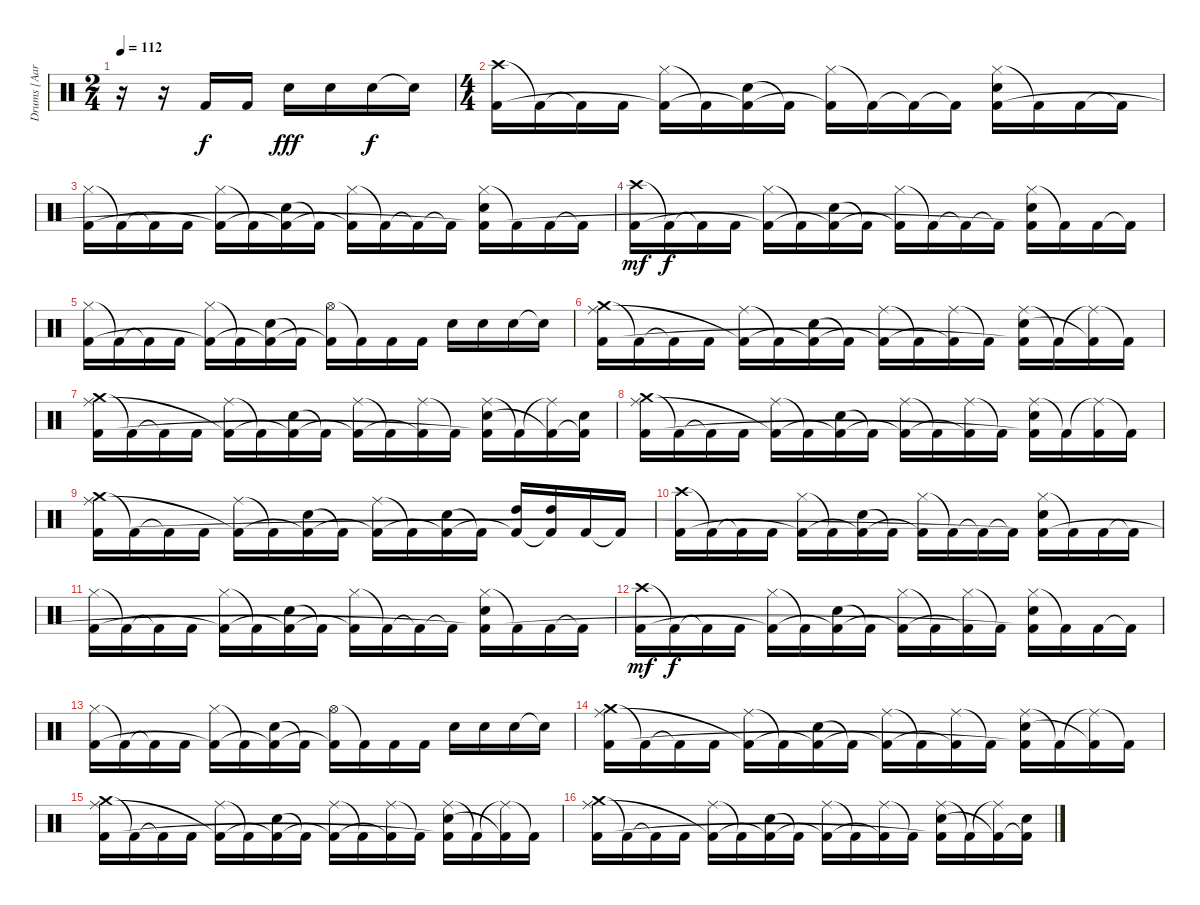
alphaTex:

\track ("Drums [Aaron Harris]" "Drums [Aar") {instrument percussion}
\staff {score}
\articulation defaults
\ts (2 4)
\tempo 112
\clef neutral
\ks c
r.16{dy f} r.16 "Kick (hit) 2".16 "Kick (hit) 2".16 "Electric Snare (hit)".16{dy fff} "Electric Snare (hit)".16 "Electric Snare (hit)".16{dy f} "Electric Snare (hit)"{t}.16 |
\ts (4 4)
("Crash high (hit)" "Kick (hit) 2").16 "Kick (hit) 2"{t}.16 "Kick (hit) 2"{t}.16 "Kick (hit) 2".16 ("Hi-Hat (closed)" "Kick (hit) 2"{t}).16 "Kick (hit) 2"{t}.16 ("Electric Snare (hit)" "Kick (hit) 2"{t}).16 "Kick (hit) 2"{t}.16 ("Hi-Hat (closed)" "Kick (hit) 2"{t}).16 "Kick (hit) 2"{t}.16 "Kick (hit) 2"{t}.16 "Kick (hit) 2"{t}.16 ("Hi-Hat (closed)" "Electric Snare (hit)" "Kick (hit) 2").16 "Kick (hit) 2"{t}.16 "Kick (hit) 2".16 "Kick (hit) 2"{t}.16 |
("Hi-Hat (closed)" "Kick (hit) 2").16 "Kick (hit) 2"{t}.16 "Kick (hit) 2"{t}.16 "Kick (hit) 2".16 ("Hi-Hat (closed)" "Kick (hit) 2"{t}).16 "Kick (hit) 2"{t}.16 ("Electric Snare (hit)" "Kick (hit) 2"{t}).16 "Kick (hit) 2"{t}.16 ("Hi-Hat (closed)" "Kick (hit) 2"{t}).16 "Kick (hit) 2"{t}.16 "Kick (hit) 2"{t}.16 "Kick (hit) 2"{t}.16 ("Hi-Hat (closed)" "Electric Snare (hit)" "Kick (hit) 2"{t}).16 "Kick (hit) 2"{t}.16 "Kick (hit) 2".16 "Kick (hit) 2"{t}.16 |
("Crash high (hit)" "Kick (hit) 2").16{dy mf} "Kick (hit) 2"{t}.16{dy f} "Kick (hit) 2"{t}.16 "Kick (hit) 2".16 ("Hi-Hat (closed)" "Kick (hit) 2"{t}).16 "Kick (hit) 2"{t}.16 ("Electric Snare (hit)" "Kick (hit) 2"{t}).16 "Kick (hit) 2"{t}.16 ("Hi-Hat (closed)" "Kick (hit) 2"{t}).16 "Kick (hit) 2"{t}.16 "Kick (hit) 2"{t}.16 "Kick (hit) 2"{t}.16 ("Hi-Hat (closed)" "Electric Snare (hit)" "Kick (hit) 2"{t}).16 "Kick (hit) 2"{t}.16 "Kick (hit) 2".16 "Kick (hit) 2"{t}.16 |
("Hi-Hat (closed)" "Kick (hit) 2").16 "Kick (hit) 2"{t}.16 "Kick (hit) 2"{t}.16 "Kick (hit) 2".16 ("Hi-Hat (closed)" "Kick (hit) 2"{t}).16 "Kick (hit) 2"{t}.16 ("Electric Snare (hit)" "Kick (hit) 2"{t}).16 "Kick (hit) 2"{t}.16 ("Hi-Hat (open)" "Kick (hit) 2"{t}).16 "Kick (hit) 2"{t}.16 "Kick (hit) 2".16 "Kick (hit) 2".16 "Electric Snare (hit)".16 "Electric Snare (hit)".16 "Electric Snare (hit)".16 "Electric Snare (hit)"{t}.16 |
("Crash medium (hit)" "Ride (middle)" "Kick (hit) 2").16 "Kick (hit) 2"{t}.16 "Kick (hit) 2"{t}.16 "Kick (hit) 2".16 ("Ride (middle)" "Kick (hit) 2"{t}).16 "Kick (hit) 2"{t}.16 ("Electric Snare (hit)" "Kick (hit) 2"{t}).16 "Kick (hit) 2"{t}.16 ("Ride (middle)" "Kick (hit) 2"{t}).16 "Kick (hit) 2"{t}.16 ("Ride (middle)" "Kick (hit) 2"{t}).16 "Kick (hit) 2"{t}.16 ("Ride (middle)" "Electric Snare (hit)" "Kick (hit) 2"{t}).16 "Kick (hit) 2"{t}.16 ("Ride (middle)"{t} "Kick (hit) 2"{t}).16 "Kick (hit) 2"{t}.16 |
("Crash medium (hit)" "Ride (middle)" "Kick (hit) 2").16 "Kick (hit) 2"{t}.16 "Kick (hit) 2"{t}.16 "Kick (hit) 2".16 ("Ride (middle)" "Kick (hit) 2"{t}).16 "Kick (hit) 2"{t}.16 ("Electric Snare (hit)" "Kick (hit) 2"{t}).16 "Kick (hit) 2"{t}.16 ("Ride (middle)" "Kick (hit) 2"{t}).16 "Kick (hit) 2"{t}.16 ("Ride (middle)" "Kick (hit) 2"{t}).16 "Kick (hit) 2"{t}.16 ("Ride (middle)" "Electric Snare (hit)" "Kick (hit) 2"{t}).16 "Kick (hit) 2"{t}.16 ("Ride (middle)"{t} "Kick (hit) 2"{t}).16 ("Electric Snare (hit)" "Kick (hit) 2"{t}).16 |
("Crash medium (hit)" "Ride (middle)" "Kick (hit) 2").16 "Kick (hit) 2"{t}.16 "Kick (hit) 2"{t}.16 "Kick (hit) 2".16 ("Ride (middle)" "Kick (hit) 2"{t}).16 "Kick (hit) 2"{t}.16 ("Electric Snare (hit)" "Kick (hit) 2"{t}).16 "Kick (hit) 2"{t}.16 ("Ride (middle)" "Kick (hit) 2"{t}).16 "Kick (hit) 2"{t}.16 ("Ride (middle)" "Kick (hit) 2"{t}).16 "Kick (hit) 2"{t}.16 ("Ride (middle)" "Electric Snare (hit)" "Kick (hit) 2"{t}).16 "Kick (hit) 2"{t}.16 ("Ride (middle)"{t} "Kick (hit) 2").16 "Kick (hit) 2"{t}.16 |
("Crash medium (hit)" "Ride (middle)" "Kick (hit) 2").16 "Kick (hit) 2"{t}.16 "Kick (hit) 2"{t}.16 "Kick (hit) 2".16 ("Ride (middle)" "Kick (hit) 2"{t}).16 "Kick (hit) 2"{t}.16 ("Electric Snare (hit)" "Kick (hit) 2"{t}).16 "Kick (hit) 2"{t}.16 ("Ride (middle)" "Kick (hit) 2"{t}).16 "Kick (hit) 2"{t}.16 ("Electric Snare (hit)" "Kick (hit) 2"{t}).16 "Kick (hit) 2"{t}.16 ("High Tom (hit)" "Kick (hit) 2"{t}).16 ("High Tom (hit)" "Kick (hit) 2"{t}).16 "Kick (hit) 2".16 "Kick (hit) 2"{t}.16 |
("Crash high (hit)" "Kick (hit) 2").16 "Kick (hit) 2"{t}.16 "Kick (hit) 2"{t}.16 "Kick (hit) 2".16 ("Hi-Hat (closed)" "Kick (hit) 2"{t}).16 "Kick (hit) 2"{t}.16 ("Electric Snare (hit)" "Kick (hit) 2"{t}).16 "Kick (hit) 2"{t}.16 ("Hi-Hat (closed)" "Kick (hit) 2"{t}).16 "Kick (hit) 2"{t}.16 "Kick (hit) 2"{t}.16 "Kick (hit) 2"{t}.16 ("Hi-Hat (closed)" "Electric Snare (hit)" "Kick (hit) 2"{t}).16 "Kick (hit) 2"{t}.16 "Kick (hit) 2".16 "Kick (hit) 2"{t}.16 |
("Hi-Hat (closed)" "Kick (hit) 2").16 "Kick (hit) 2"{t}.16 "Kick (hit) 2"{t}.16 "Kick (hit) 2".16 ("Hi-Hat (closed)" "Kick (hit) 2"{t}).16 "Kick (hit) 2"{t}.16 ("Electric Snare (hit)" "Kick (hit) 2"{t}).16 "Kick (hit) 2"{t}.16 ("Hi-Hat (closed)" "Kick (hit) 2"{t}).16 "Kick (hit) 2"{t}.16 "Kick (hit) 2"{t}.16 "Kick (hit) 2"{t}.16 ("Hi-Hat (closed)" "Electric Snare (hit)" "Kick (hit) 2"{t}).16 "Kick (hit) 2"{t}.16 "Kick (hit) 2".16 "Kick (hit) 2"{t}.16 |
("Crash high (hit)" "Kick (hit) 2").16{dy mf} "Kick (hit) 2"{t}.16{dy f} "Kick (hit) 2"{t}.16 "Kick (hit) 2".16 ("Hi-Hat (closed)" "Kick (hit) 2"{t}).16 "Kick (hit) 2"{t}.16 ("Electric Snare (hit)" "Kick (hit) 2"{t}).16 "Kick (hit) 2"{t}.16 ("Hi-Hat (closed)" "Kick (hit) 2"{t}).16 "Kick (hit) 2"{t}.16 ("Hi-Hat (closed)" "Kick (hit) 2"{t}).16 "Kick (hit) 2"{t}.16 ("Hi-Hat (closed)" "Electric Snare (hit)" "Kick (hit) 2"{t}).16 "Kick (hit) 2"{t}.16 "Kick (hit) 2".16 "Kick (hit) 2"{t}.16 |
("Hi-Hat (closed)" "Kick (hit) 2").16 "Kick (hit) 2"{t}.16 "Kick (hit) 2"{t}.16 "Kick (hit) 2".16 ("Hi-Hat (closed)" "Kick (hit) 2"{t}).16 "Kick (hit) 2"{t}.16 ("Electric Snare (hit)" "Kick (hit) 2"{t}).16 "Kick (hit) 2"{t}.16 ("Hi-Hat (open)" "Kick (hit) 2"{t}).16 "Kick (hit) 2"{t}.16 "Kick (hit) 2".16 "Kick (hit) 2".16 "Electric Snare (hit)".16 "Electric Snare (hit)".16 "Electric Snare (hit)".16 "Electric Snare (hit)"{t}.16 |
("Crash medium (hit)" "Ride (middle)" "Kick (hit) 2").16 "Kick (hit) 2"{t}.16 "Kick (hit) 2"{t}.16 "Kick (hit) 2".16 ("Ride (middle)" "Kick (hit) 2"{t}).16 "Kick (hit) 2"{t}.16 ("Electric Snare (hit)" "Kick (hit) 2"{t}).16 "Kick (hit) 2"{t}.16 ("Ride (middle)" "Kick (hit) 2"{t}).16 "Kick (hit) 2"{t}.16 ("Ride (middle)" "Kick (hit) 2"{t}).16 "Kick (hit) 2"{t}.16 ("Ride (middle)" "Electric Snare (hit)" "Kick (hit) 2"{t}).16 "Kick (hit) 2"{t}.16 ("Ride (middle)"{t} "Kick (hit) 2"{t}).16 "Kick (hit) 2"{t}.16 |
("Crash medium (hit)" "Ride (middle)" "Kick (hit) 2").16 "Kick (hit) 2"{t}.16 "Kick (hit) 2"{t}.16 "Kick (hit) 2".16 ("Ride (middle)" "Kick (hit) 2"{t}).16 "Kick (hit) 2"{t}.16 ("Electric Snare (hit)" "Kick (hit) 2"{t}).16 "Kick (hit) 2"{t}.16 ("Ride (middle)" "Kick (hit) 2"{t}).16 "Kick (hit) 2"{t}.16 ("Ride (middle)" "Kick (hit) 2"{t}).16 "Kick (hit) 2"{t}.16 ("Ride (middle)" "Electric Snare (hit)" "Kick (hit) 2"{t}).16 "Kick (hit) 2"{t}.16 ("Ride (middle)"{t} "Kick (hit) 2"{t}).16 "Kick (hit) 2"{t}.16 |
("Crash medium (hit)" "Ride (middle)" "Kick (hit) 2").16 "Kick (hit) 2"{t}.16 "Kick (hit) 2"{t}.16 "Kick (hit) 2".16 ("Ride (middle)" "Kick (hit) 2"{t}).16 "Kick (hit) 2"{t}.16 ("Electric Snare (hit)" "Kick (hit) 2"{t}).16 "Kick (hit) 2"{t}.16 ("Ride (middle)" "Kick (hit) 2"{t}).16 "Kick (hit) 2"{t}.16 ("Ride (middle)" "Kick (hit) 2"{t}).16 "Kick (hit) 2"{t}.16 ("Ride (middle)" "Electric Snare (hit)" "Kick (hit) 2"{t}).16 "Kick (hit) 2"{t}.16 ("Ride (middle)"{t} "Kick (hit) 2"{t}).16 ("Electric Snare (hit)" "Kick (hit) 2"{t}).16
